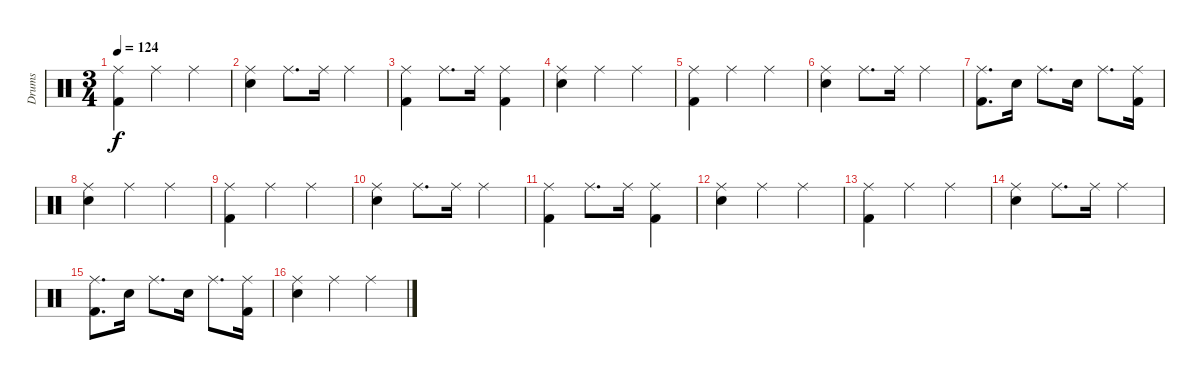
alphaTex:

\track ("Drums" "Drums") {instrument percussion}
\staff {score}
\articulation defaults
\ts (3 4)
\tempo 124
\clef neutral
\ks c
("Kick (hit) 2" "Ride (middle)").4{dy f} "Ride (middle)".4 "Ride (middle)".4 |
("Electric Snare (hit)" "Ride (middle)").4 "Ride (middle)".8{d} "Ride (middle)".16 "Ride (middle)".4 |
("Kick (hit) 2" "Ride (middle)").4 "Ride (middle)".8{d} "Ride (middle)".16 ("Kick (hit) 2" "Ride (middle)").4 |
("Electric Snare (hit)" "Ride (middle)").4 "Ride (middle)".4 "Ride (middle)".4 |
("Kick (hit) 2" "Ride (middle)").4 "Ride (middle)".4 "Ride (middle)".4 |
("Electric Snare (hit)" "Ride (middle)").4 "Ride (middle)".8{d} "Ride (middle)".16 "Ride (middle)".4 |
("Kick (hit) 2" "Ride (middle)").8{d} "Snare (hit) 2".16 "Ride (middle)".8{d} "Snare (hit) 2".16 "Ride (middle)".8{d} ("Kick (hit) 2" "Ride (middle)").16 |
("Electric Snare (hit)" "Ride (middle)").4 "Ride (middle)".4 "Ride (middle)".4 |
("Kick (hit) 2" "Ride (middle)").4 "Ride (middle)".4 "Ride (middle)".4 |
("Electric Snare (hit)" "Ride (middle)").4 "Ride (middle)".8{d} "Ride (middle)".16 "Ride (middle)".4 |
("Kick (hit) 2" "Ride (middle)").4 "Ride (middle)".8{d} "Ride (middle)".16 ("Kick (hit) 2" "Ride (middle)").4 |
("Electric Snare (hit)" "Ride (middle)").4 "Ride (middle)".4 "Ride (middle)".4 |
("Kick (hit) 2" "Ride (middle)").4 "Ride (middle)".4 "Ride (middle)".4 |
("Electric Snare (hit)" "Ride (middle)").4 "Ride (middle)".8{d} "Ride (middle)".16 "Ride (middle)".4 |
("Kick (hit) 2" "Ride (middle)").8{d} "Snare (hit) 2".16 "Ride (middle)".8{d} "Snare (hit) 2".16 "Ride (middle)".8{d} ("Kick (hit) 2" "Ride (middle)").16 |
("Electric Snare (hit)" "Ride (middle)").4 "Ride (middle)".4 "Ride (middle)".4
